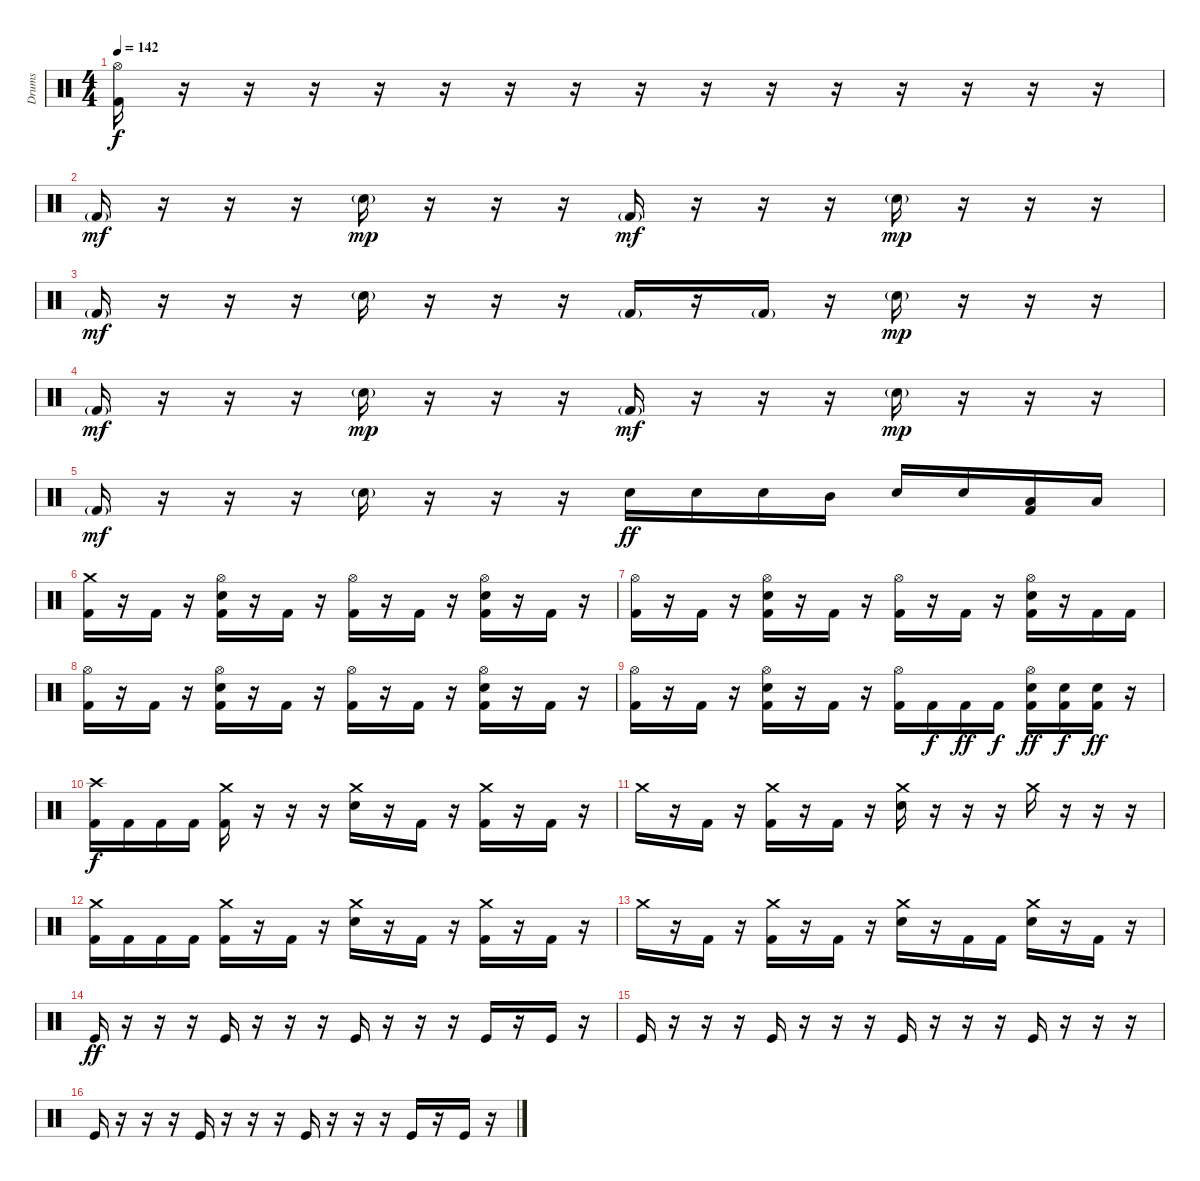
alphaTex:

\track ("Drums" "Drums") {instrument percussion}
\staff {score}
\articulation defaults
\ts (4 4)
\tempo 142
\clef neutral
\ks c
("Hi-Hat (open)" "Kick (hit) 2").16{dy f} r.16 r.16 r.16 r.16 r.16 r.16 r.16 r.16 r.16 r.16 r.16 r.16 r.16 r.16 r.16 |
"Kick (hit) 2"{g}.16{dy mf} r.16 r.16 r.16 "Electric Snare (hit)"{g}.16{dy mp} r.16 r.16 r.16 "Kick (hit) 2"{g}.16{dy mf} r.16 r.16 r.16 "Electric Snare (hit)"{g}.16{dy mp} r.16 r.16 r.16 |
"Kick (hit) 2"{g}.16{dy mf} r.16 r.16 r.16 "Electric Snare (hit)"{g}.16 r.16 r.16 r.16 "Kick (hit) 2"{g}.16 r.16 "Kick (hit) 2"{g}.16 r.16 "Electric Snare (hit)"{g}.16{dy mp} r.16 r.16 r.16 |
"Kick (hit) 2"{g}.16{dy mf} r.16 r.16 r.16 "Electric Snare (hit)"{g}.16{dy mp} r.16 r.16 r.16 "Kick (hit) 2"{g}.16{dy mf} r.16 r.16 r.16 "Electric Snare (hit)"{g}.16{dy mp} r.16 r.16 r.16 |
"Kick (hit) 2"{g}.16{dy mf} r.16 r.16 r.16 "Electric Snare (hit)"{g}.16 r.16 r.16 r.16 "Electric Snare (hit)".16{dy ff} "Electric Snare (hit)".16 "Electric Snare (hit)".16 "Mid Tom (hit)".16 "Electric Snare (hit)".16 "Electric Snare (hit)".16 ("Low Tom (hit)" "Kick (hit) 2").16 "Low Tom (hit)".16 |
("Crash medium (hit)" "Kick (hit) 2").16 r.16 "Kick (hit) 2".16 r.16 ("Hi-Hat (open)" "Electric Snare (hit)" "Kick (hit) 2").16 r.16 "Kick (hit) 2".16 r.16 ("Hi-Hat (open)" "Kick (hit) 2").16 r.16 "Kick (hit) 2".16 r.16 ("Hi-Hat (open)" "Electric Snare (hit)" "Kick (hit) 2").16 r.16 "Kick (hit) 2".16 r.16 |
("Hi-Hat (open)" "Kick (hit) 2").16 r.16 "Kick (hit) 2".16 r.16 ("Hi-Hat (open)" "Electric Snare (hit)" "Kick (hit) 2").16 r.16 "Kick (hit) 2".16 r.16 ("Hi-Hat (open)" "Kick (hit) 2").16 r.16 "Kick (hit) 2".16 r.16 ("Hi-Hat (open)" "Electric Snare (hit)" "Kick (hit) 2").16 r.16 "Kick (hit) 2".16 "Kick (hit) 2".16 |
("Hi-Hat (open)" "Kick (hit) 2").16 r.16 "Kick (hit) 2".16 r.16 ("Hi-Hat (open)" "Electric Snare (hit)" "Kick (hit) 2").16 r.16 "Kick (hit) 2".16 r.16 ("Hi-Hat (open)" "Kick (hit) 2").16 r.16 "Kick (hit) 2".16 r.16 ("Hi-Hat (open)" "Electric Snare (hit)" "Kick (hit) 2").16 r.16 "Kick (hit) 2".16 r.16 |
("Hi-Hat (open)" "Kick (hit) 2").16 r.16 "Kick (hit) 2".16 r.16 ("Hi-Hat (open)" "Electric Snare (hit)" "Kick (hit) 2").16 r.16 "Kick (hit) 2".16 r.16 ("Hi-Hat (open)" "Kick (hit) 2").16 "Kick (hit) 2".16{dy f} "Kick (hit) 2".16{dy ff} "Kick (hit) 2".16{dy f} ("Hi-Hat (open)" "Electric Snare (hit)" "Kick (hit) 2").16{dy ff} ("Electric Snare (hit)" "Kick (hit) 2").16{dy f} ("Electric Snare (hit)" "Kick (hit) 2").16{dy ff} r.16 |
("Crash high (hit)" "Kick (hit) 2").16{dy f} "Kick (hit) 2".16 "Kick (hit) 2".16 "Kick (hit) 2".16 ("Crash medium (hit)" "Kick (hit) 2").16 r.16 r.16 r.16 ("Crash medium (hit)" "Electric Snare (hit)").16 r.16 "Kick (hit) 2".16 r.16 ("Crash medium (hit)" "Kick (hit) 2").16 r.16 "Kick (hit) 2".16 r.16 |
"Crash medium (hit)".16 r.16 "Kick (hit) 2".16 r.16 ("Crash medium (hit)" "Kick (hit) 2").16 r.16 "Kick (hit) 2".16 r.16 ("Crash medium (hit)" "Electric Snare (hit)").16 r.16 r.16 r.16 "Crash medium (hit)".16 r.16 r.16 r.16 |
("Crash medium (hit)" "Kick (hit) 2").16 "Kick (hit) 2".16 "Kick (hit) 2".16 "Kick (hit) 2".16 ("Crash medium (hit)" "Kick (hit) 2").16 r.16 "Kick (hit) 2".16 r.16 ("Crash medium (hit)" "Electric Snare (hit)").16 r.16 "Kick (hit) 2".16 r.16 ("Crash medium (hit)" "Kick (hit) 2").16 r.16 "Kick (hit) 2".16 r.16 |
"Crash medium (hit)".16 r.16 "Kick (hit) 2".16 r.16 ("Crash medium (hit)" "Kick (hit) 2").16 r.16 "Kick (hit) 2".16 r.16 ("Crash medium (hit)" "Electric Snare (hit)").16 r.16 "Kick (hit) 2".16 "Kick (hit) 2".16 ("Crash medium (hit)" "Electric Snare (hit)").16 r.16 "Kick (hit) 2".16 r.16 |
"Kick (hit)".16{dy ff} r.16 r.16 r.16 "Kick (hit)".16 r.16 r.16 r.16 "Kick (hit)".16 r.16 r.16 r.16 "Kick (hit)".16 r.16 "Kick (hit)".16 r.16 |
"Kick (hit)".16 r.16 r.16 r.16 "Kick (hit)".16 r.16 r.16 r.16 "Kick (hit)".16 r.16 r.16 r.16 "Kick (hit)".16 r.16 r.16 r.16 |
"Kick (hit)".16 r.16 r.16 r.16 "Kick (hit)".16 r.16 r.16 r.16 "Kick (hit)".16 r.16 r.16 r.16 "Kick (hit)".16 r.16 "Kick (hit)".16 r.16
